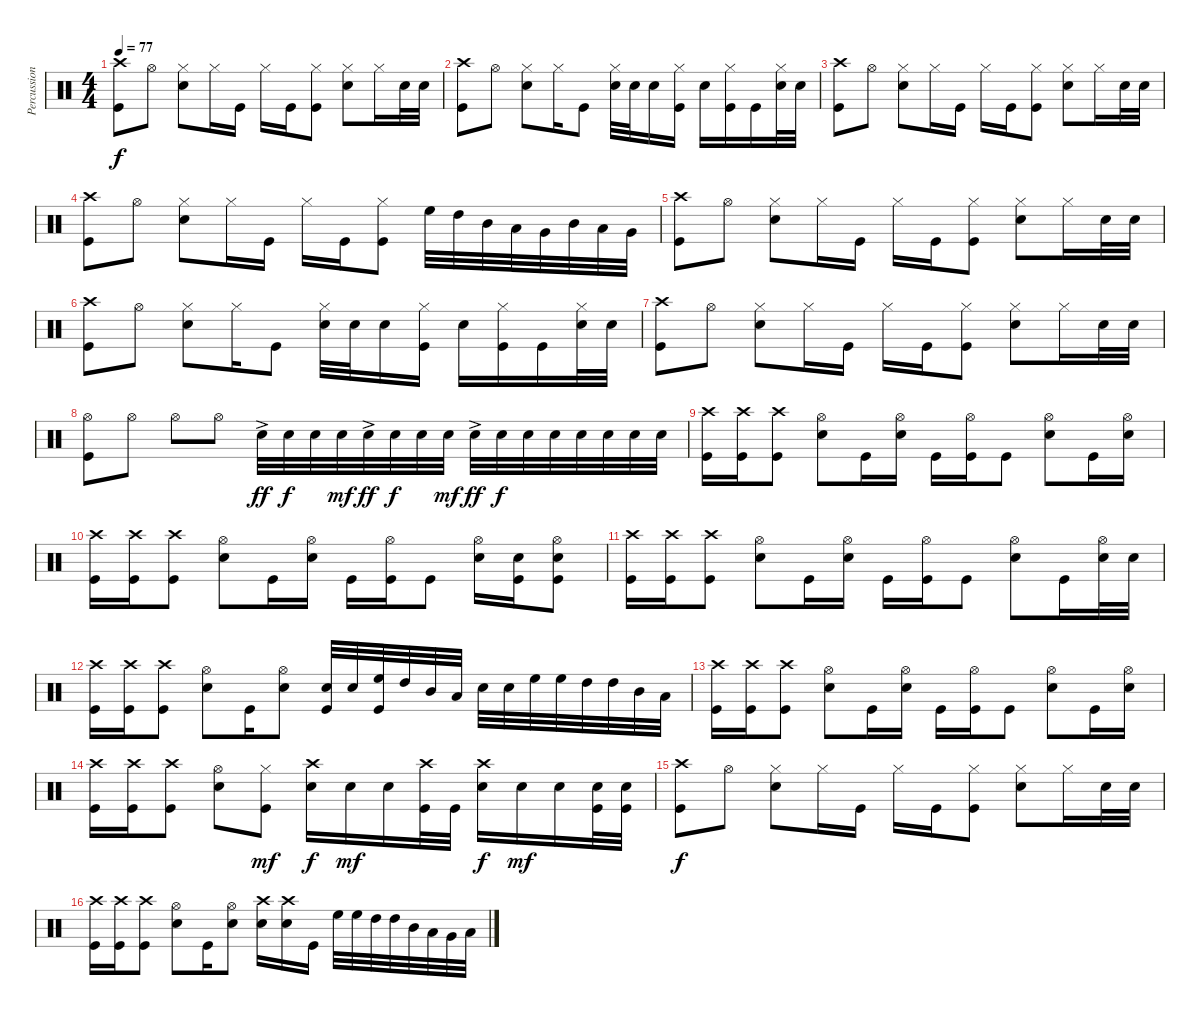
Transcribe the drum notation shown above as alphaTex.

\track ("Percussion" "Percussion") {instrument percussion}
\staff {score}
\articulation defaults
\ts (4 4)
\tempo 77
\clef neutral
\ks c
("Crash high (hit)" "Kick (hit)").8{dy f} "Hi-Hat (open)".8 ("Hi-Hat (closed)" "Snare (hit) 2").8 "Hi-Hat (closed)".16 "Kick (hit)".16 "Hi-Hat (closed)".16 "Kick (hit)".16 ("Hi-Hat (closed)" "Kick (hit)").8 ("Hi-Hat (closed)" "Snare (hit) 2").8 "Hi-Hat (closed)".16 "Snare (hit) 2".32 "Snare (hit) 2".32 |
("Crash high (hit)" "Kick (hit)").8 "Hi-Hat (open)".8 ("Hi-Hat (closed)" "Snare (hit) 2").8 "Hi-Hat (closed)".16 "Kick (hit)".8 ("Hi-Hat (closed)" "Snare (hit) 2").32 "Snare (hit) 2".32 "Snare (hit) 2".16 ("Hi-Hat (closed)" "Kick (hit)").16 "Snare (hit) 2".16 ("Hi-Hat (closed)" "Kick (hit)").16 "Kick (hit)".16 ("Hi-Hat (closed)" "Snare (hit) 2").32 "Snare (hit) 2".32 |
("Crash high (hit)" "Kick (hit)").8 "Hi-Hat (open)".8 ("Hi-Hat (closed)" "Snare (hit) 2").8 "Hi-Hat (closed)".16 "Kick (hit)".16 "Hi-Hat (closed)".16 "Kick (hit)".16 ("Hi-Hat (closed)" "Kick (hit)").8 ("Hi-Hat (closed)" "Snare (hit) 2").8 "Hi-Hat (closed)".16 "Snare (hit) 2".32 "Snare (hit) 2".32 |
("Crash high (hit)" "Kick (hit)").8 "Hi-Hat (open)".8 ("Hi-Hat (closed)" "Snare (hit) 2").8 "Hi-Hat (closed)".16 "Kick (hit)".16 "Hi-Hat (closed)".16 "Kick (hit)".16 ("Hi-Hat (closed)" "Kick (hit)").8 "High Floor Tom (hit)".32 "High Tom (hit)".32 "Mid Tom (hit)".32 "Low Tom (hit)".32 "Very Low Tom (hit)".32 "Mid Tom (hit)".32 "Low Tom (hit)".32 "Very Low Tom (hit)".32 |
("Crash high (hit)" "Kick (hit)").8 "Hi-Hat (open)".8 ("Hi-Hat (closed)" "Snare (hit) 2").8 "Hi-Hat (closed)".16 "Kick (hit)".16 "Hi-Hat (closed)".16 "Kick (hit)".16 ("Hi-Hat (closed)" "Kick (hit)").8 ("Hi-Hat (closed)" "Snare (hit) 2").8 "Hi-Hat (closed)".16 "Snare (hit) 2".32 "Snare (hit) 2".32 |
("Crash high (hit)" "Kick (hit)").8 "Hi-Hat (open)".8 ("Hi-Hat (closed)" "Snare (hit) 2").8 "Hi-Hat (closed)".16 "Kick (hit)".8 ("Hi-Hat (closed)" "Snare (hit) 2").32 "Snare (hit) 2".32 "Snare (hit) 2".16 ("Hi-Hat (closed)" "Kick (hit)").16 "Snare (hit) 2".16 ("Hi-Hat (closed)" "Kick (hit)").16 "Kick (hit)".16 ("Hi-Hat (closed)" "Snare (hit) 2").32 "Snare (hit) 2".32 |
("Crash high (hit)" "Kick (hit)").8 "Hi-Hat (open)".8 ("Hi-Hat (closed)" "Snare (hit) 2").8 "Hi-Hat (closed)".16 "Kick (hit)".16 "Hi-Hat (closed)".16 "Kick (hit)".16 ("Hi-Hat (closed)" "Kick (hit)").8 ("Hi-Hat (closed)" "Snare (hit) 2").8 "Hi-Hat (closed)".16 "Snare (hit) 2".32 "Snare (hit) 2".32 |
("Hi-Hat (open)" "Kick (hit)").8 "Hi-Hat (open)".8 "Hi-Hat (open)".8 "Hi-Hat (open)".8 "Snare (hit) 2"{ac}.32{dy ff} "Snare (hit) 2".32{dy f} "Snare (hit) 2".32 "Snare (hit) 2".32{dy mf} "Snare (hit) 2"{ac}.32{dy ff} "Snare (hit) 2".32{dy f} "Snare (hit) 2".32 "Snare (hit) 2".32{dy mf} "Snare (hit) 2"{ac}.32{dy ff} "Snare (hit) 2".32{dy f} "Snare (hit) 2".32 "Snare (hit) 2".32 "Snare (hit) 2".32 "Snare (hit) 2".32 "Snare (hit) 2".32 "Snare (hit) 2".32 |
("Crash high (hit)" "Kick (hit)").16 ("Crash high (hit)" "Kick (hit)").16 ("Crash high (hit)" "Kick (hit)").8 ("Hi-Hat (open)" "Snare (hit) 2").8 "Kick (hit)".16 ("Hi-Hat (open)" "Snare (hit) 2").16 "Kick (hit)".16 ("Hi-Hat (open)" "Kick (hit)").16 "Kick (hit)".8 ("Hi-Hat (open)" "Snare (hit) 2").8 "Kick (hit)".16 ("Hi-Hat (open)" "Snare (hit) 2").16 |
("Crash high (hit)" "Kick (hit)").16 ("Crash high (hit)" "Kick (hit)").16 ("Crash high (hit)" "Kick (hit)").8 ("Hi-Hat (open)" "Snare (hit) 2").8 "Kick (hit)".16 ("Hi-Hat (open)" "Snare (hit) 2").16 "Kick (hit)".16 ("Hi-Hat (open)" "Kick (hit)").16 "Kick (hit)".8 ("Hi-Hat (open)" "Snare (hit) 2").16 ("Snare (hit) 2" "Kick (hit)").16 ("Hi-Hat (open)" "Snare (hit) 2" "Kick (hit)").8 |
("Crash high (hit)" "Kick (hit)").16 ("Crash high (hit)" "Kick (hit)").16 ("Crash high (hit)" "Kick (hit)").8 ("Hi-Hat (open)" "Snare (hit) 2").8 "Kick (hit)".16 ("Hi-Hat (open)" "Snare (hit) 2").16 "Kick (hit)".16 ("Hi-Hat (open)" "Kick (hit)").16 "Kick (hit)".8 ("Hi-Hat (open)" "Snare (hit) 2").8 "Kick (hit)".16 ("Hi-Hat (open)" "Snare (hit) 2").32 "Snare (hit) 2".32 |
("Crash high (hit)" "Kick (hit)").16 ("Crash high (hit)" "Kick (hit)").16 ("Crash high (hit)" "Kick (hit)").8 ("Hi-Hat (open)" "Snare (hit) 2").8 "Kick (hit)".16 ("Hi-Hat (open)" "Snare (hit) 2").8 ("Snare (hit) 2" "Kick (hit)").32 "Snare (hit) 2".32 ("High Floor Tom (hit)" "Kick (hit)").32 "High Tom (hit)".32 "Mid Tom (hit)".32 "Low Tom (hit)".32 "Snare (hit) 2".32 "Snare (hit) 2".32 "High Floor Tom (hit)".32 "High Floor Tom (hit)".32 "High Tom (hit)".32 "High Tom (hit)".32 "Mid Tom (hit)".32 "Low Tom (hit)".32 |
("Crash high (hit)" "Kick (hit)").16 ("Crash high (hit)" "Kick (hit)").16 ("Crash high (hit)" "Kick (hit)").8 ("Hi-Hat (open)" "Snare (hit) 2").8 "Kick (hit)".16 ("Hi-Hat (open)" "Snare (hit) 2").16 "Kick (hit)".16 ("Hi-Hat (open)" "Kick (hit)").16 "Kick (hit)".8 ("Hi-Hat (open)" "Snare (hit) 2").8 "Kick (hit)".16 ("Hi-Hat (open)" "Snare (hit) 2").16 |
("Crash high (hit)" "Kick (hit)").16 ("Crash high (hit)" "Kick (hit)").16 ("Crash high (hit)" "Kick (hit)").8 ("Hi-Hat (open)" "Snare (hit) 2").8 ("Hi-Hat (closed)" "Kick (hit)").8{dy mf} ("Crash high (hit)" "Snare (hit) 2").16{dy f} "Snare (hit) 2".16{dy mf} "Snare (hit) 2".16 ("Crash high (hit)" "Kick (hit)").32 "Kick (hit)".32 ("Crash high (hit)" "Snare (hit) 2").16{dy f} "Snare (hit) 2".16{dy mf} "Snare (hit) 2".16 ("Snare (hit) 2" "Kick (hit)").32 ("Snare (hit) 2" "Kick (hit)").32 |
("Crash high (hit)" "Kick (hit)").8{dy f} "Hi-Hat (open)".8 ("Hi-Hat (closed)" "Snare (hit) 2").8 "Hi-Hat (closed)".16 "Kick (hit)".16 "Hi-Hat (closed)".16 "Kick (hit)".16 ("Hi-Hat (closed)" "Kick (hit)").8 ("Hi-Hat (closed)" "Snare (hit) 2").8 "Hi-Hat (closed)".16 "Snare (hit) 2".32 "Snare (hit) 2".32 |
("Crash high (hit)" "Kick (hit)").16 ("Crash high (hit)" "Kick (hit)").16 ("Crash high (hit)" "Kick (hit)").8 ("Hi-Hat (open)" "Snare (hit) 2").8 "Kick (hit)".16 ("Hi-Hat (open)" "Snare (hit) 2").8 ("Crash high (hit)" "Snare (hit) 2").16 ("Crash high (hit)" "Snare (hit) 2").16 "Kick (hit)".16 "High Floor Tom (hit)".32 "High Floor Tom (hit)".32 "High Tom (hit)".32 "High Tom (hit)".32 "Mid Tom (hit)".32 "Low Tom (hit)".32 "Very Low Tom (hit)".32 "Low Floor Tom (hit)".32
